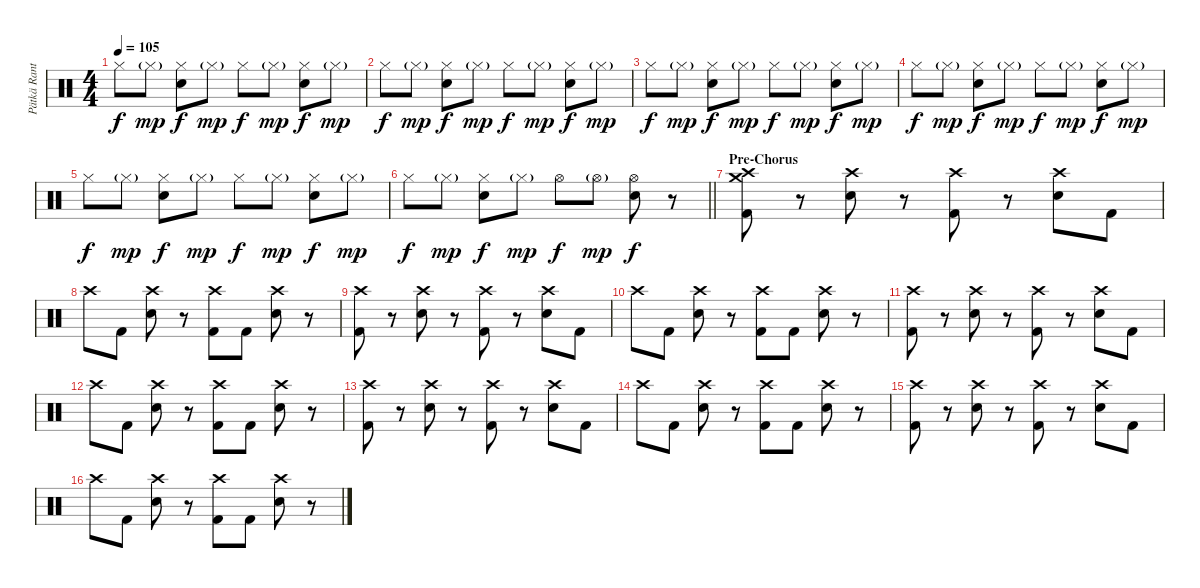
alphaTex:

\track ("Pätkä Rantala (Drums)" "Pätkä Rant") {instrument percussion}
\staff {score}
\articulation defaults
\ts (4 4)
\tempo 105
\clef neutral
\ks c "Hi-Hat (closed)".8{dy f} "Hi-Hat (closed)"{g}.8{dy mp}
("Hi-Hat (closed)" "Snare (hit) 2").8{dy f} "Hi-Hat (closed)"{g}.8{dy mp} "Hi-Hat (closed)".8{dy f} "Hi-Hat (closed)"{g}.8{dy mp} ("Hi-Hat (closed)" "Snare (hit) 2").8{dy f} "Hi-Hat (closed)"{g}.8{dy mp} |
"Hi-Hat (closed)".8{dy f} "Hi-Hat (closed)"{g}.8{dy mp} ("Hi-Hat (closed)" "Snare (hit) 2").8{dy f} "Hi-Hat (closed)"{g}.8{dy mp} "Hi-Hat (closed)".8{dy f} "Hi-Hat (closed)"{g}.8{dy mp} ("Hi-Hat (closed)" "Snare (hit) 2").8{dy f} "Hi-Hat (closed)"{g}.8{dy mp} |
"Hi-Hat (closed)".8{dy f} "Hi-Hat (closed)"{g}.8{dy mp} ("Hi-Hat (closed)" "Snare (hit) 2").8{dy f} "Hi-Hat (closed)"{g}.8{dy mp} "Hi-Hat (closed)".8{dy f} "Hi-Hat (closed)"{g}.8{dy mp} ("Hi-Hat (closed)" "Snare (hit) 2").8{dy f} "Hi-Hat (closed)"{g}.8{dy mp} |
"Hi-Hat (closed)".8{dy f} "Hi-Hat (closed)"{g}.8{dy mp} ("Hi-Hat (closed)" "Snare (hit) 2").8{dy f} "Hi-Hat (closed)"{g}.8{dy mp} "Hi-Hat (closed)".8{dy f} "Hi-Hat (closed)"{g}.8{dy mp} ("Hi-Hat (closed)" "Snare (hit) 2").8{dy f} "Hi-Hat (closed)"{g}.8{dy mp} |
"Hi-Hat (closed)".8{dy f} "Hi-Hat (closed)"{g}.8{dy mp} ("Hi-Hat (closed)" "Snare (hit) 2").8{dy f} "Hi-Hat (closed)"{g}.8{dy mp} "Hi-Hat (closed)".8{dy f} "Hi-Hat (closed)"{g}.8{dy mp} ("Hi-Hat (closed)" "Snare (hit) 2").8{dy f} "Hi-Hat (closed)"{g}.8{dy mp} |
\barLineRight lightlight "Hi-Hat (closed)".8{dy f} "Hi-Hat (closed)"{g}.8{dy mp}
("Hi-Hat (closed)" "Snare (hit) 2").8{dy f} "Hi-Hat (closed)"{g}.8{dy mp} "Hi-Hat (open)".8{dy f} "Hi-Hat (open)"{g}.8{dy mp} ("Hi-Hat (open)" "Snare (hit) 2").8{dy f} r.8 |
\section ("" "Pre-Chorus")
("Crash medium (hit)" "Crash high (hit)" "Kick (hit) 2").8 r.8 ("Crash high (hit)" "Snare (hit) 2").8 r.8 ("Crash high (hit)" "Kick (hit) 2").8 r.8 ("Crash high (hit)" "Snare (hit) 2").8 "Kick (hit) 2".8 |
"Crash high (hit)".8 "Kick (hit) 2".8 ("Crash high (hit)" "Snare (hit) 2").8 r.8 ("Crash high (hit)" "Kick (hit) 2").8 "Kick (hit) 2".8 ("Crash high (hit)" "Snare (hit) 2").8 r.8 |
("Crash high (hit)" "Kick (hit) 2").8 r.8 ("Crash high (hit)" "Snare (hit) 2").8 r.8 ("Crash high (hit)" "Kick (hit) 2").8 r.8 ("Crash high (hit)" "Snare (hit) 2").8 "Kick (hit) 2".8 |
"Crash high (hit)".8 "Kick (hit) 2".8 ("Crash high (hit)" "Snare (hit) 2").8 r.8 ("Crash high (hit)" "Kick (hit) 2").8 "Kick (hit) 2".8 ("Crash high (hit)" "Snare (hit) 2").8 r.8 |
("Crash high (hit)" "Kick (hit) 2").8 r.8 ("Crash high (hit)" "Snare (hit) 2").8 r.8 ("Crash high (hit)" "Kick (hit) 2").8 r.8 ("Crash high (hit)" "Snare (hit) 2").8 "Kick (hit) 2".8 |
"Crash high (hit)".8 "Kick (hit) 2".8 ("Crash high (hit)" "Snare (hit) 2").8 r.8 ("Crash high (hit)" "Kick (hit) 2").8 "Kick (hit) 2".8 ("Crash high (hit)" "Snare (hit) 2").8 r.8 |
("Crash high (hit)" "Kick (hit) 2").8 r.8 ("Crash high (hit)" "Snare (hit) 2").8 r.8 ("Crash high (hit)" "Kick (hit) 2").8 r.8 ("Crash high (hit)" "Snare (hit) 2").8 "Kick (hit) 2".8 |
"Crash high (hit)".8 "Kick (hit) 2".8 ("Crash high (hit)" "Snare (hit) 2").8 r.8 ("Crash high (hit)" "Kick (hit) 2").8 "Kick (hit) 2".8 ("Crash high (hit)" "Snare (hit) 2").8 r.8 |
("Crash high (hit)" "Kick (hit) 2").8 r.8 ("Crash high (hit)" "Snare (hit) 2").8 r.8 ("Crash high (hit)" "Kick (hit) 2").8 r.8 ("Crash high (hit)" "Snare (hit) 2").8 "Kick (hit) 2".8 |
"Crash high (hit)".8 "Kick (hit) 2".8 ("Crash high (hit)" "Snare (hit) 2").8 r.8 ("Crash high (hit)" "Kick (hit) 2").8 "Kick (hit) 2".8 ("Crash high (hit)" "Snare (hit) 2").8 r.8
